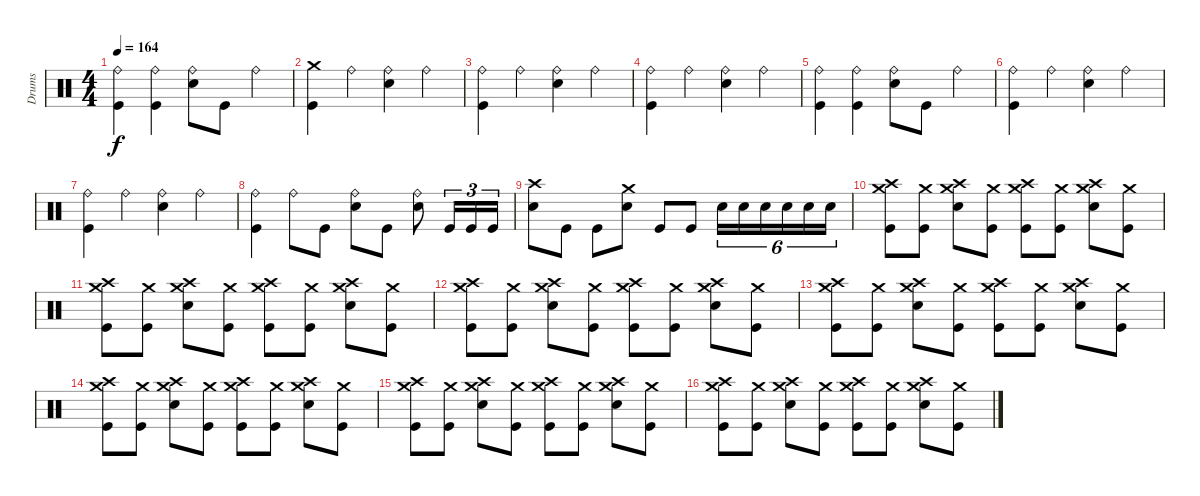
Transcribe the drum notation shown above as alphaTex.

\track ("Drums" "Drums") {instrument percussion}
\staff {score}
\articulation defaults
\ts (4 4)
\tempo 164
\clef neutral
\ks c
("Ride (bell)" "Kick (hit)").4{dy f} ("Ride (bell)" "Kick (hit)").4 ("Snare (hit) 2" "Ride (bell)").8 "Kick (hit)".8 "Ride (bell)".4 |
("Crash medium (hit)" "Kick (hit)").4 "Ride (bell)".4 ("Snare (hit) 2" "Ride (bell)").4 "Ride (bell)".4 |
("Ride (bell)" "Kick (hit)").4 "Ride (bell)".4 ("Snare (hit) 2" "Ride (bell)").4 "Ride (bell)".4 |
("Ride (bell)" "Kick (hit)").4 "Ride (bell)".4 ("Snare (hit) 2" "Ride (bell)").4 "Ride (bell)".4 |
("Ride (bell)" "Kick (hit)").4 ("Ride (bell)" "Kick (hit)").4 ("Snare (hit) 2" "Ride (bell)").8 "Kick (hit)".8 "Ride (bell)".4 |
("Ride (bell)" "Kick (hit)").4 "Ride (bell)".4 ("Snare (hit) 2" "Ride (bell)").4 "Ride (bell)".4 |
("Ride (bell)" "Kick (hit)").4 "Ride (bell)".4 ("Snare (hit) 2" "Ride (bell)").4 "Ride (bell)".4 |
("Ride (bell)" "Kick (hit)").4 "Ride (bell)".8 "Kick (hit)".8 ("Snare (hit) 2" "Ride (bell)").8 "Kick (hit)".8 ("Snare (hit) 2" "Ride (bell)").8 "Kick (hit)".16{tu (3 2)} "Kick (hit)".16{tu (3 2)} "Kick (hit)".16{tu (3 2)} |
("Snare (hit) 2" "Crash high (hit)").8 "Kick (hit)".8 "Kick (hit)".8 ("Snare (hit) 2" "Crash medium (hit)").8 "Kick (hit)".8 "Kick (hit)".8 "Snare (hit) 2".16{tu (6 4)} "Snare (hit) 2".16{tu (6 4)} "Snare (hit) 2".16{tu (6 4)} "Snare (hit) 2".16{tu (6 4)} "Snare (hit) 2".16{tu (6 4)} "Snare (hit) 2".16{tu (6 4)} |
("Crash medium (hit)" "Kick (hit)" "Crash high (hit)").8 ("Crash medium (hit)" "Kick (hit)").8 ("Snare (hit) 2" "Crash medium (hit)" "Crash high (hit)").8 ("Crash medium (hit)" "Kick (hit)").8 ("Crash medium (hit)" "Kick (hit)" "Crash high (hit)").8 ("Crash medium (hit)" "Kick (hit)").8 ("Snare (hit) 2" "Crash medium (hit)" "Crash high (hit)").8 ("Crash medium (hit)" "Kick (hit)").8 |
("Crash medium (hit)" "Kick (hit)" "Crash high (hit)").8 ("Crash medium (hit)" "Kick (hit)").8 ("Snare (hit) 2" "Crash medium (hit)" "Crash high (hit)").8 ("Crash medium (hit)" "Kick (hit)").8 ("Crash medium (hit)" "Kick (hit)" "Crash high (hit)").8 ("Crash medium (hit)" "Kick (hit)").8 ("Snare (hit) 2" "Crash medium (hit)" "Crash high (hit)").8 ("Crash medium (hit)" "Kick (hit)").8 |
("Crash medium (hit)" "Kick (hit)" "Crash high (hit)").8 ("Crash medium (hit)" "Kick (hit)").8 ("Snare (hit) 2" "Crash medium (hit)" "Crash high (hit)").8 ("Crash medium (hit)" "Kick (hit)").8 ("Crash medium (hit)" "Kick (hit)" "Crash high (hit)").8 ("Crash medium (hit)" "Kick (hit)").8 ("Snare (hit) 2" "Crash medium (hit)" "Crash high (hit)").8 ("Crash medium (hit)" "Kick (hit)").8 |
("Crash medium (hit)" "Kick (hit)" "Crash high (hit)").8 ("Crash medium (hit)" "Kick (hit)").8 ("Snare (hit) 2" "Crash medium (hit)" "Crash high (hit)").8 ("Crash medium (hit)" "Kick (hit)").8 ("Crash medium (hit)" "Kick (hit)" "Crash high (hit)").8 ("Crash medium (hit)" "Kick (hit)").8 ("Snare (hit) 2" "Crash medium (hit)" "Crash high (hit)").8 ("Crash medium (hit)" "Kick (hit)").8 |
("Crash medium (hit)" "Kick (hit)" "Crash high (hit)").8 ("Crash medium (hit)" "Kick (hit)").8 ("Snare (hit) 2" "Crash medium (hit)" "Crash high (hit)").8 ("Crash medium (hit)" "Kick (hit)").8 ("Crash medium (hit)" "Kick (hit)" "Crash high (hit)").8 ("Crash medium (hit)" "Kick (hit)").8 ("Snare (hit) 2" "Crash medium (hit)" "Crash high (hit)").8 ("Crash medium (hit)" "Kick (hit)").8 |
("Crash medium (hit)" "Kick (hit)" "Crash high (hit)").8 ("Crash medium (hit)" "Kick (hit)").8 ("Snare (hit) 2" "Crash medium (hit)" "Crash high (hit)").8 ("Crash medium (hit)" "Kick (hit)").8 ("Crash medium (hit)" "Kick (hit)" "Crash high (hit)").8 ("Crash medium (hit)" "Kick (hit)").8 ("Snare (hit) 2" "Crash medium (hit)" "Crash high (hit)").8 ("Crash medium (hit)" "Kick (hit)").8 |
("Crash medium (hit)" "Kick (hit)" "Crash high (hit)").8 ("Crash medium (hit)" "Kick (hit)").8 ("Snare (hit) 2" "Crash medium (hit)" "Crash high (hit)").8 ("Crash medium (hit)" "Kick (hit)").8 ("Crash medium (hit)" "Kick (hit)" "Crash high (hit)").8 ("Crash medium (hit)" "Kick (hit)").8 ("Snare (hit) 2" "Crash medium (hit)" "Crash high (hit)").8 ("Crash medium (hit)" "Kick (hit)").8
